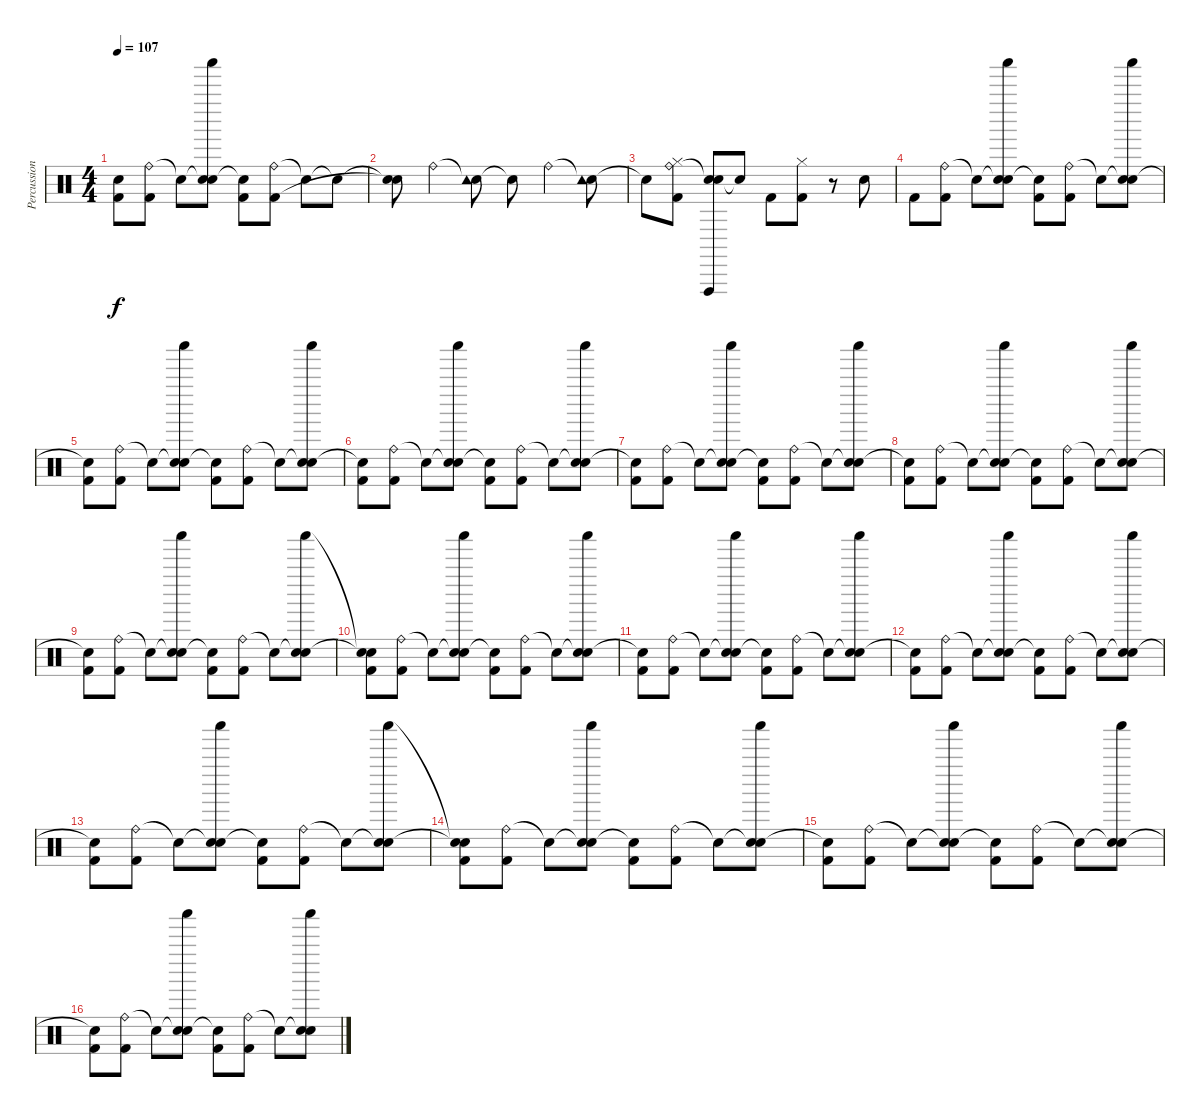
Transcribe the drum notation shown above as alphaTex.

\track ("Percussion" "Percussion") {instrument percussion}
\staff {score}
\articulation defaults
\ts (4 4)
\tempo 107
\clef neutral
\ks c
("Snare (hit)"{t} "Kick (hit) 2").8{dy f} ("Ride (bell)" "Kick (hit) 2").8 "Snare (hit)"{t}.8 ("Snare (hit)"{t} "Shaker (hit)" "Electric Snare (hit)").8 ("Snare (hit)"{t} "Kick (hit) 2").8 ("Ride (bell)" "Kick (hit) 2").8 "Snare (hit)"{t}.8 "Snare (hit)"{t}.8 |
("Snare (hit)"{t} "Snare (hit)"{t}).8 "Ride (bell)".4 ("Snare (hit)"{t} "Tambourine (hit)").8 "Snare (hit)"{t}.8 "Ride (bell)".4 ("Snare (hit)"{t} "Tambourine (hit)").8 |
"Snare (hit)"{t}.8 ("Ride (bell)" "Hi-Hat (closed)" "Kick (hit) 2").8 ("Snare (hit)"{t} "Vibraslap (hit)" "Electric Snare (hit)").8 "Snare (hit)"{t}.8 "Kick (hit) 2".8 ("Hi-Hat (closed)" "Kick (hit) 2").8 r.8 "Electric Snare (hit)".8 |
"Kick (hit) 2".8 ("Ride (bell)" "Kick (hit) 2").8 "Snare (hit)"{t}.8 ("Snare (hit)"{t} "Shaker (hit)" "Electric Snare (hit)").8 ("Snare (hit)"{t} "Kick (hit) 2").8 ("Ride (bell)" "Kick (hit) 2").8 "Snare (hit)"{t}.8 ("Snare (hit)"{t} "Shaker (hit)" "Electric Snare (hit)").8 |
("Snare (hit)"{t} "Kick (hit) 2").8 ("Ride (bell)" "Kick (hit) 2").8 "Snare (hit)"{t}.8 ("Snare (hit)"{t} "Shaker (hit)" "Electric Snare (hit)").8 ("Snare (hit)"{t} "Kick (hit) 2").8 ("Ride (bell)" "Kick (hit) 2").8 "Snare (hit)"{t}.8 ("Snare (hit)"{t} "Shaker (hit)" "Electric Snare (hit)").8 |
("Snare (hit)"{t} "Kick (hit) 2").8 ("Ride (bell)" "Kick (hit) 2").8 "Snare (hit)"{t}.8 ("Snare (hit)"{t} "Shaker (hit)" "Electric Snare (hit)").8 ("Snare (hit)"{t} "Kick (hit) 2").8 ("Ride (bell)" "Kick (hit) 2").8 "Snare (hit)"{t}.8 ("Snare (hit)"{t} "Shaker (hit)" "Electric Snare (hit)").8 |
("Snare (hit)"{t} "Kick (hit) 2").8 ("Ride (bell)" "Kick (hit) 2").8 "Snare (hit)"{t}.8 ("Snare (hit)"{t} "Shaker (hit)" "Electric Snare (hit)").8 ("Snare (hit)"{t} "Kick (hit) 2").8 ("Ride (bell)" "Kick (hit) 2").8 "Snare (hit)"{t}.8 ("Snare (hit)"{t} "Shaker (hit)" "Electric Snare (hit)").8 |
("Snare (hit)"{t} "Kick (hit) 2").8 ("Ride (bell)" "Kick (hit) 2").8 "Snare (hit)"{t}.8 ("Snare (hit)"{t} "Shaker (hit)" "Electric Snare (hit)").8 ("Snare (hit)"{t} "Kick (hit) 2").8 ("Ride (bell)" "Kick (hit) 2").8 "Snare (hit)"{t}.8 ("Snare (hit)"{t} "Shaker (hit)" "Electric Snare (hit)").8 |
("Snare (hit)"{t} "Kick (hit) 2").8 ("Ride (bell)" "Kick (hit) 2").8 "Snare (hit)"{t}.8 ("Snare (hit)"{t} "Shaker (hit)" "Electric Snare (hit)").8 ("Snare (hit)"{t} "Kick (hit) 2").8 ("Ride (bell)" "Kick (hit) 2").8 "Snare (hit)"{t}.8 ("Snare (hit)"{t} "Shaker (hit)" "Electric Snare (hit)").8 |
("Snare (hit)"{t} "Snare (hit)"{t} "Kick (hit) 2").8 ("Ride (bell)" "Kick (hit) 2").8 "Snare (hit)"{t}.8 ("Snare (hit)"{t} "Shaker (hit)" "Electric Snare (hit)").8 ("Snare (hit)"{t} "Kick (hit) 2").8 ("Ride (bell)" "Kick (hit) 2").8 "Snare (hit)"{t}.8 ("Snare (hit)"{t} "Shaker (hit)" "Electric Snare (hit)").8 |
("Snare (hit)"{t} "Kick (hit) 2").8 ("Ride (bell)" "Kick (hit) 2").8 "Snare (hit)"{t}.8 ("Snare (hit)"{t} "Shaker (hit)" "Electric Snare (hit)").8 ("Snare (hit)"{t} "Kick (hit) 2").8 ("Ride (bell)" "Kick (hit) 2").8 "Snare (hit)"{t}.8 ("Snare (hit)"{t} "Shaker (hit)" "Electric Snare (hit)").8 |
("Snare (hit)"{t} "Kick (hit) 2").8 ("Ride (bell)" "Kick (hit) 2").8 "Snare (hit)"{t}.8 ("Snare (hit)"{t} "Shaker (hit)" "Electric Snare (hit)").8 ("Snare (hit)"{t} "Kick (hit) 2").8 ("Ride (bell)" "Kick (hit) 2").8 "Snare (hit)"{t}.8 ("Snare (hit)"{t} "Shaker (hit)" "Electric Snare (hit)").8 |
("Snare (hit)"{t} "Kick (hit) 2").8 ("Ride (bell)" "Kick (hit) 2").8 "Snare (hit)"{t}.8 ("Snare (hit)"{t} "Shaker (hit)" "Electric Snare (hit)").8 ("Snare (hit)"{t} "Kick (hit) 2").8 ("Ride (bell)" "Kick (hit) 2").8 "Snare (hit)"{t}.8 ("Snare (hit)"{t} "Shaker (hit)" "Electric Snare (hit)").8 |
("Snare (hit)"{t} "Snare (hit)"{t} "Kick (hit) 2").8 ("Ride (bell)" "Kick (hit) 2").8 "Snare (hit)"{t}.8 ("Snare (hit)"{t} "Shaker (hit)" "Electric Snare (hit)").8 ("Snare (hit)"{t} "Kick (hit) 2").8 ("Ride (bell)" "Kick (hit) 2").8 "Snare (hit)"{t}.8 ("Snare (hit)"{t} "Shaker (hit)" "Electric Snare (hit)").8 |
("Snare (hit)"{t} "Kick (hit) 2").8 ("Ride (bell)" "Kick (hit) 2").8 "Snare (hit)"{t}.8 ("Snare (hit)"{t} "Shaker (hit)" "Electric Snare (hit)").8 ("Snare (hit)"{t} "Kick (hit) 2").8 ("Ride (bell)" "Kick (hit) 2").8 "Snare (hit)"{t}.8 ("Snare (hit)"{t} "Shaker (hit)" "Electric Snare (hit)").8 |
("Snare (hit)"{t} "Kick (hit) 2").8 ("Ride (bell)" "Kick (hit) 2").8 "Snare (hit)"{t}.8 ("Snare (hit)"{t} "Shaker (hit)" "Electric Snare (hit)").8 ("Snare (hit)"{t} "Kick (hit) 2").8 ("Ride (bell)" "Kick (hit) 2").8 "Snare (hit)"{t}.8 ("Snare (hit)"{t} "Shaker (hit)" "Electric Snare (hit)").8
